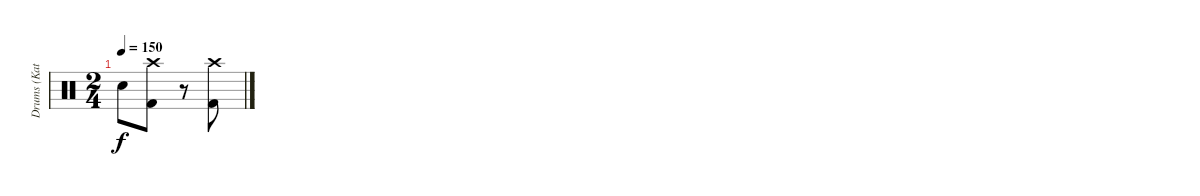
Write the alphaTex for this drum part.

\track ("Drums (Katsuji)" "Drums (Kat") {instrument percussion}
\staff {score}
\articulation defaults
\ts (2 4)
\tempo 150
\clef neutral
\ks c "Snare (hit) 2".8{dy f}
("Crash high (hit)" "Kick (hit) 2").8 r.8 ("Crash high (hit)" "Kick (hit) 2").8
